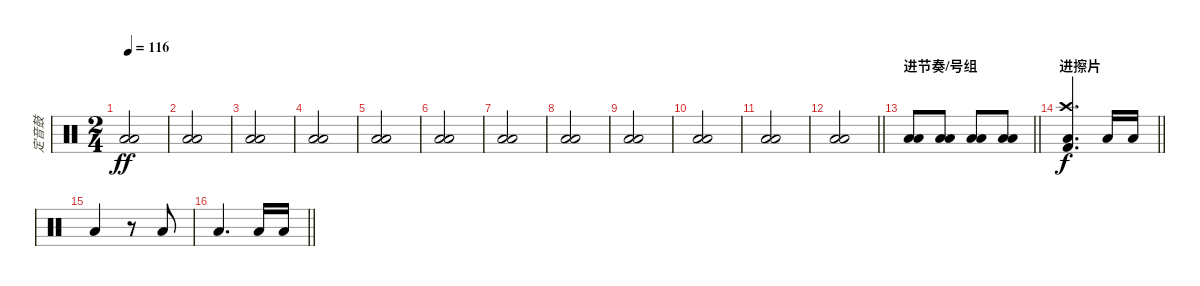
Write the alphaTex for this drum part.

\track ("定音鼓" "定音鼓") {instrument percussion}
\staff {score}
\articulation defaults
\ts (2 4)
\tempo 116
\clef neutral
\ks c
("Low Floor Tom (hit)" "Low Floor Tom (hit)").2{dy ff} |
("Low Floor Tom (hit)" "Low Floor Tom (hit)").2 |
("Low Floor Tom (hit)" "Low Floor Tom (hit)").2 |
("Low Floor Tom (hit)" "Low Floor Tom (hit)").2 |
("Low Floor Tom (hit)" "Low Floor Tom (hit)").2 |
("Low Floor Tom (hit)" "Low Floor Tom (hit)").2 |
("Low Floor Tom (hit)" "Low Floor Tom (hit)").2 |
("Low Floor Tom (hit)" "Low Floor Tom (hit)").2 |
("Low Floor Tom (hit)" "Low Floor Tom (hit)").2 |
("Low Floor Tom (hit)" "Low Floor Tom (hit)").2 |
("Low Floor Tom (hit)" "Low Floor Tom (hit)").2 |
\barLineRight lightlight
("Low Floor Tom (hit)" "Low Floor Tom (hit)").2 |
\section ("" "进节奏/号组")
\barLineRight lightlight
("Low Floor Tom (hit)" "Low Floor Tom (hit)").8 ("Low Floor Tom (hit)" "Low Floor Tom (hit)").8 ("Low Floor Tom (hit)" "Low Floor Tom (hit)").8 ("Low Floor Tom (hit)" "Low Floor Tom (hit)").8 |
\section ("" "进擦片")
\barLineRight lightlight
("Crash high (hit)" "Low Floor Tom (hit)" "Kick (hit) 2").4{d dy f} "Low Floor Tom (hit)".16 "Low Floor Tom (hit)".16 |
"Low Floor Tom (hit)".4 r.8 "Low Floor Tom (hit)".8 |
\barLineRight lightlight "Low Floor Tom (hit)".4{d} "Low Floor Tom (hit)".16 "Low Floor Tom (hit)".16
